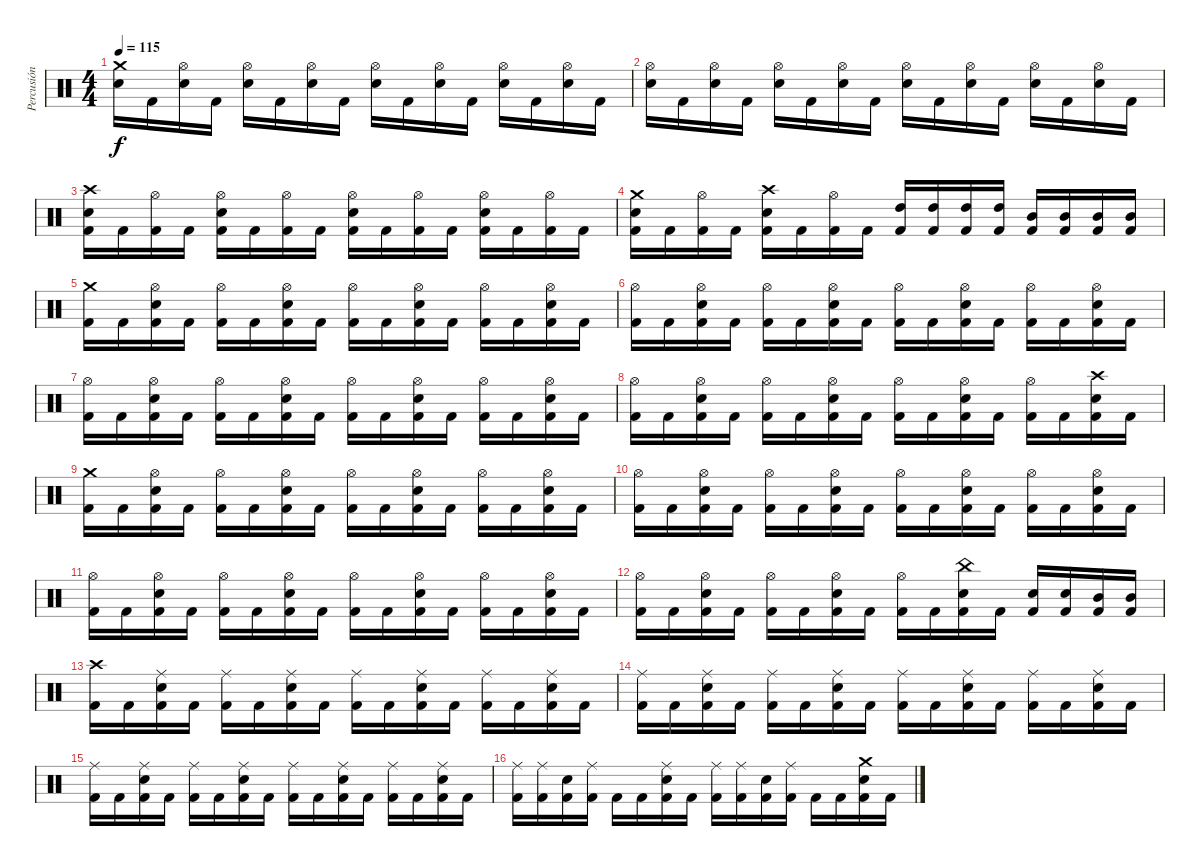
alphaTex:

\track ("Percusión" "Percusión") {instrument percussion}
\staff {score}
\articulation defaults
\ts (4 4)
\tempo 115
\clef neutral
\ks c
("Crash medium (hit)" "Snare (hit) 2").16{dy f} "Kick (hit) 2".16 ("Hi-Hat (open)" "Snare (hit) 2").16 "Kick (hit) 2".16 ("Hi-Hat (open)" "Snare (hit) 2").16 "Kick (hit) 2".16 ("Hi-Hat (open)" "Snare (hit) 2").16 "Kick (hit) 2".16 ("Hi-Hat (open)" "Snare (hit) 2").16 "Kick (hit) 2".16 ("Hi-Hat (open)" "Snare (hit) 2").16 "Kick (hit) 2".16 ("Hi-Hat (open)" "Snare (hit) 2").16 "Kick (hit) 2".16 ("Hi-Hat (open)" "Snare (hit) 2").16 "Kick (hit) 2".16 |
("Hi-Hat (open)" "Snare (hit) 2").16 "Kick (hit) 2".16 ("Hi-Hat (open)" "Snare (hit) 2").16 "Kick (hit) 2".16 ("Hi-Hat (open)" "Snare (hit) 2").16 "Kick (hit) 2".16 ("Hi-Hat (open)" "Snare (hit) 2").16 "Kick (hit) 2".16 ("Hi-Hat (open)" "Snare (hit) 2").16 "Kick (hit) 2".16 ("Hi-Hat (open)" "Snare (hit) 2").16 "Kick (hit) 2".16 ("Hi-Hat (open)" "Snare (hit) 2").16 "Kick (hit) 2".16 ("Hi-Hat (open)" "Snare (hit) 2").16 "Kick (hit) 2".16 |
("Crash high (hit)" "Snare (hit) 2" "Kick (hit) 2").16 "Kick (hit) 2".16 ("Hi-Hat (open)" "Kick (hit) 2").16 "Kick (hit) 2".16 ("Hi-Hat (open)" "Snare (hit) 2" "Kick (hit) 2").16 "Kick (hit) 2".16 ("Hi-Hat (open)" "Kick (hit) 2").16 "Kick (hit) 2".16 ("Hi-Hat (open)" "Snare (hit) 2" "Kick (hit) 2").16 "Kick (hit) 2".16 ("Hi-Hat (open)" "Kick (hit) 2").16 "Kick (hit) 2".16 ("Hi-Hat (open)" "Snare (hit) 2" "Kick (hit) 2").16 "Kick (hit) 2".16 ("Hi-Hat (open)" "Kick (hit) 2").16 "Kick (hit) 2".16 |
("Crash medium (hit)" "Snare (hit) 2" "Kick (hit) 2").16 "Kick (hit) 2".16 ("Hi-Hat (open)" "Kick (hit) 2").16 "Kick (hit) 2".16 ("Crash high (hit)" "Snare (hit) 2" "Kick (hit) 2").16 "Kick (hit) 2".16 ("Hi-Hat (open)" "Kick (hit) 2").16 "Kick (hit) 2".16 ("High Tom (hit)" "Kick (hit) 2").16 ("High Tom (hit)" "Kick (hit) 2").16 ("High Tom (hit)" "Kick (hit) 2").16 ("High Tom (hit)" "Kick (hit) 2").16 ("Mid Tom (hit)" "Kick (hit) 2").16 ("Mid Tom (hit)" "Kick (hit) 2").16 ("Mid Tom (hit)" "Kick (hit) 2").16 ("Mid Tom (hit)" "Kick (hit) 2").16 |
("Crash medium (hit)" "Kick (hit) 2").16 "Kick (hit) 2".16 ("Hi-Hat (open)" "Snare (hit) 2" "Kick (hit) 2").16 "Kick (hit) 2".16 ("Hi-Hat (open)" "Kick (hit) 2").16 "Kick (hit) 2".16 ("Hi-Hat (open)" "Snare (hit) 2" "Kick (hit) 2").16 "Kick (hit) 2".16 ("Hi-Hat (open)" "Kick (hit) 2").16 "Kick (hit) 2".16 ("Hi-Hat (open)" "Snare (hit) 2" "Kick (hit) 2").16 "Kick (hit) 2".16 ("Hi-Hat (open)" "Kick (hit) 2").16 "Kick (hit) 2".16 ("Hi-Hat (open)" "Snare (hit) 2" "Kick (hit) 2").16 "Kick (hit) 2".16 |
("Hi-Hat (open)" "Kick (hit) 2").16 "Kick (hit) 2".16 ("Hi-Hat (open)" "Snare (hit) 2" "Kick (hit) 2").16 "Kick (hit) 2".16 ("Hi-Hat (open)" "Kick (hit) 2").16 "Kick (hit) 2".16 ("Hi-Hat (open)" "Snare (hit) 2" "Kick (hit) 2").16 "Kick (hit) 2".16 ("Hi-Hat (open)" "Kick (hit) 2").16 "Kick (hit) 2".16 ("Hi-Hat (open)" "Snare (hit) 2" "Kick (hit) 2").16 "Kick (hit) 2".16 ("Hi-Hat (open)" "Kick (hit) 2").16 "Kick (hit) 2".16 ("Hi-Hat (open)" "Snare (hit) 2" "Kick (hit) 2").16 "Kick (hit) 2".16 |
("Hi-Hat (open)" "Kick (hit) 2").16 "Kick (hit) 2".16 ("Hi-Hat (open)" "Snare (hit) 2" "Kick (hit) 2").16 "Kick (hit) 2".16 ("Hi-Hat (open)" "Kick (hit) 2").16 "Kick (hit) 2".16 ("Hi-Hat (open)" "Snare (hit) 2" "Kick (hit) 2").16 "Kick (hit) 2".16 ("Hi-Hat (open)" "Kick (hit) 2").16 "Kick (hit) 2".16 ("Hi-Hat (open)" "Snare (hit) 2" "Kick (hit) 2").16 "Kick (hit) 2".16 ("Hi-Hat (open)" "Kick (hit) 2").16 "Kick (hit) 2".16 ("Hi-Hat (open)" "Snare (hit) 2" "Kick (hit) 2").16 "Kick (hit) 2".16 |
("Hi-Hat (open)" "Kick (hit) 2").16 "Kick (hit) 2".16 ("Hi-Hat (open)" "Snare (hit) 2" "Kick (hit) 2").16 "Kick (hit) 2".16 ("Hi-Hat (open)" "Kick (hit) 2").16 "Kick (hit) 2".16 ("Hi-Hat (open)" "Snare (hit) 2" "Kick (hit) 2").16 "Kick (hit) 2".16 ("Hi-Hat (open)" "Kick (hit) 2").16 "Kick (hit) 2".16 ("Hi-Hat (open)" "Snare (hit) 2" "Kick (hit) 2").16 "Kick (hit) 2".16 ("Hi-Hat (open)" "Kick (hit) 2").16 "Kick (hit) 2".16 ("Crash high (hit)" "Snare (hit) 2" "Kick (hit) 2").16 "Kick (hit) 2".16 |
("Crash medium (hit)" "Kick (hit) 2").16 "Kick (hit) 2".16 ("Hi-Hat (open)" "Snare (hit) 2" "Kick (hit) 2").16 "Kick (hit) 2".16 ("Hi-Hat (open)" "Kick (hit) 2").16 "Kick (hit) 2".16 ("Hi-Hat (open)" "Snare (hit) 2" "Kick (hit) 2").16 "Kick (hit) 2".16 ("Hi-Hat (open)" "Kick (hit) 2").16 "Kick (hit) 2".16 ("Hi-Hat (open)" "Snare (hit) 2" "Kick (hit) 2").16 "Kick (hit) 2".16 ("Hi-Hat (open)" "Kick (hit) 2").16 "Kick (hit) 2".16 ("Hi-Hat (open)" "Snare (hit) 2" "Kick (hit) 2").16 "Kick (hit) 2".16 |
("Hi-Hat (open)" "Kick (hit) 2").16 "Kick (hit) 2".16 ("Hi-Hat (open)" "Snare (hit) 2" "Kick (hit) 2").16 "Kick (hit) 2".16 ("Hi-Hat (open)" "Kick (hit) 2").16 "Kick (hit) 2".16 ("Hi-Hat (open)" "Snare (hit) 2" "Kick (hit) 2").16 "Kick (hit) 2".16 ("Hi-Hat (open)" "Kick (hit) 2").16 "Kick (hit) 2".16 ("Hi-Hat (open)" "Snare (hit) 2" "Kick (hit) 2").16 "Kick (hit) 2".16 ("Hi-Hat (open)" "Kick (hit) 2").16 "Kick (hit) 2".16 ("Hi-Hat (open)" "Snare (hit) 2" "Kick (hit) 2").16 "Kick (hit) 2".16 |
("Hi-Hat (open)" "Kick (hit) 2").16 "Kick (hit) 2".16 ("Hi-Hat (open)" "Snare (hit) 2" "Kick (hit) 2").16 "Kick (hit) 2".16 ("Hi-Hat (open)" "Kick (hit) 2").16 "Kick (hit) 2".16 ("Hi-Hat (open)" "Snare (hit) 2" "Kick (hit) 2").16 "Kick (hit) 2".16 ("Hi-Hat (open)" "Kick (hit) 2").16 "Kick (hit) 2".16 ("Hi-Hat (open)" "Snare (hit) 2" "Kick (hit) 2").16 "Kick (hit) 2".16 ("Hi-Hat (open)" "Kick (hit) 2").16 "Kick (hit) 2".16 ("Hi-Hat (open)" "Snare (hit) 2" "Kick (hit) 2").16 "Kick (hit) 2".16 |
("Hi-Hat (open)" "Kick (hit) 2").16 "Kick (hit) 2".16 ("Hi-Hat (open)" "Snare (hit) 2" "Kick (hit) 2").16 "Kick (hit) 2".16 ("Hi-Hat (open)" "Kick (hit) 2").16 "Kick (hit) 2".16 ("Hi-Hat (open)" "Snare (hit) 2" "Kick (hit) 2").16 "Kick (hit) 2".16 ("Hi-Hat (open)" "Kick (hit) 2").16 "Kick (hit) 2".16 ("China (hit)" "Snare (hit) 2" "Kick (hit) 2").16 "Kick (hit) 2".16 ("Snare (hit) 2" "Kick (hit) 2").16 ("Snare (hit) 2" "Kick (hit) 2").16 ("Mid Tom (hit)" "Kick (hit) 2").16 ("Mid Tom (hit)" "Kick (hit) 2").16 |
("Crash high (hit)" "Kick (hit) 2").16 "Kick (hit) 2".16 ("Ride (middle)" "Snare (hit) 2" "Kick (hit) 2").16 "Kick (hit) 2".16 ("Ride (middle)" "Kick (hit) 2").16 "Kick (hit) 2".16 ("Ride (middle)" "Snare (hit) 2" "Kick (hit) 2").16 "Kick (hit) 2".16 ("Ride (middle)" "Kick (hit) 2").16 "Kick (hit) 2".16 ("Ride (middle)" "Snare (hit) 2" "Kick (hit) 2").16 "Kick (hit) 2".16 ("Ride (middle)" "Kick (hit) 2").16 "Kick (hit) 2".16 ("Ride (middle)" "Snare (hit) 2" "Kick (hit) 2").16 "Kick (hit) 2".16 |
("Ride (middle)" "Kick (hit) 2").16 "Kick (hit) 2".16 ("Ride (middle)" "Snare (hit) 2" "Kick (hit) 2").16 "Kick (hit) 2".16 ("Ride (middle)" "Kick (hit) 2").16 "Kick (hit) 2".16 ("Ride (middle)" "Snare (hit) 2" "Kick (hit) 2").16 "Kick (hit) 2".16 ("Ride (middle)" "Kick (hit) 2").16 "Kick (hit) 2".16 ("Ride (middle)" "Snare (hit) 2" "Kick (hit) 2").16 "Kick (hit) 2".16 ("Ride (middle)" "Kick (hit) 2").16 "Kick (hit) 2".16 ("Ride (middle)" "Snare (hit) 2" "Kick (hit) 2").16 "Kick (hit) 2".16 |
("Ride (middle)" "Kick (hit) 2").16 "Kick (hit) 2".16 ("Ride (middle)" "Snare (hit) 2" "Kick (hit) 2").16 "Kick (hit) 2".16 ("Ride (middle)" "Kick (hit) 2").16 "Kick (hit) 2".16 ("Ride (middle)" "Snare (hit) 2" "Kick (hit) 2").16 "Kick (hit) 2".16 ("Ride (middle)" "Kick (hit) 2").16 "Kick (hit) 2".16 ("Ride (middle)" "Snare (hit) 2" "Kick (hit) 2").16 "Kick (hit) 2".16 ("Ride (middle)" "Kick (hit) 2").16 "Kick (hit) 2".16 ("Ride (middle)" "Snare (hit) 2" "Kick (hit) 2").16 "Kick (hit) 2".16 |
("Ride (middle)" "Kick (hit) 2").16 ("Ride (middle)" "Kick (hit) 2").16 ("Snare (hit) 2" "Kick (hit) 2").16 ("Ride (middle)" "Kick (hit) 2").16 "Kick (hit) 2".16 "Kick (hit) 2".16 ("Ride (middle)" "Snare (hit) 2" "Kick (hit) 2").16 "Kick (hit) 2".16 ("Ride (middle)" "Kick (hit) 2").16 ("Ride (middle)" "Kick (hit) 2").16 ("Snare (hit) 2" "Kick (hit) 2").16 ("Ride (middle)" "Kick (hit) 2").16 "Kick (hit) 2".16 "Kick (hit) 2".16 ("Crash medium (hit)" "Snare (hit) 2" "Kick (hit) 2").16 "Kick (hit) 2".16
